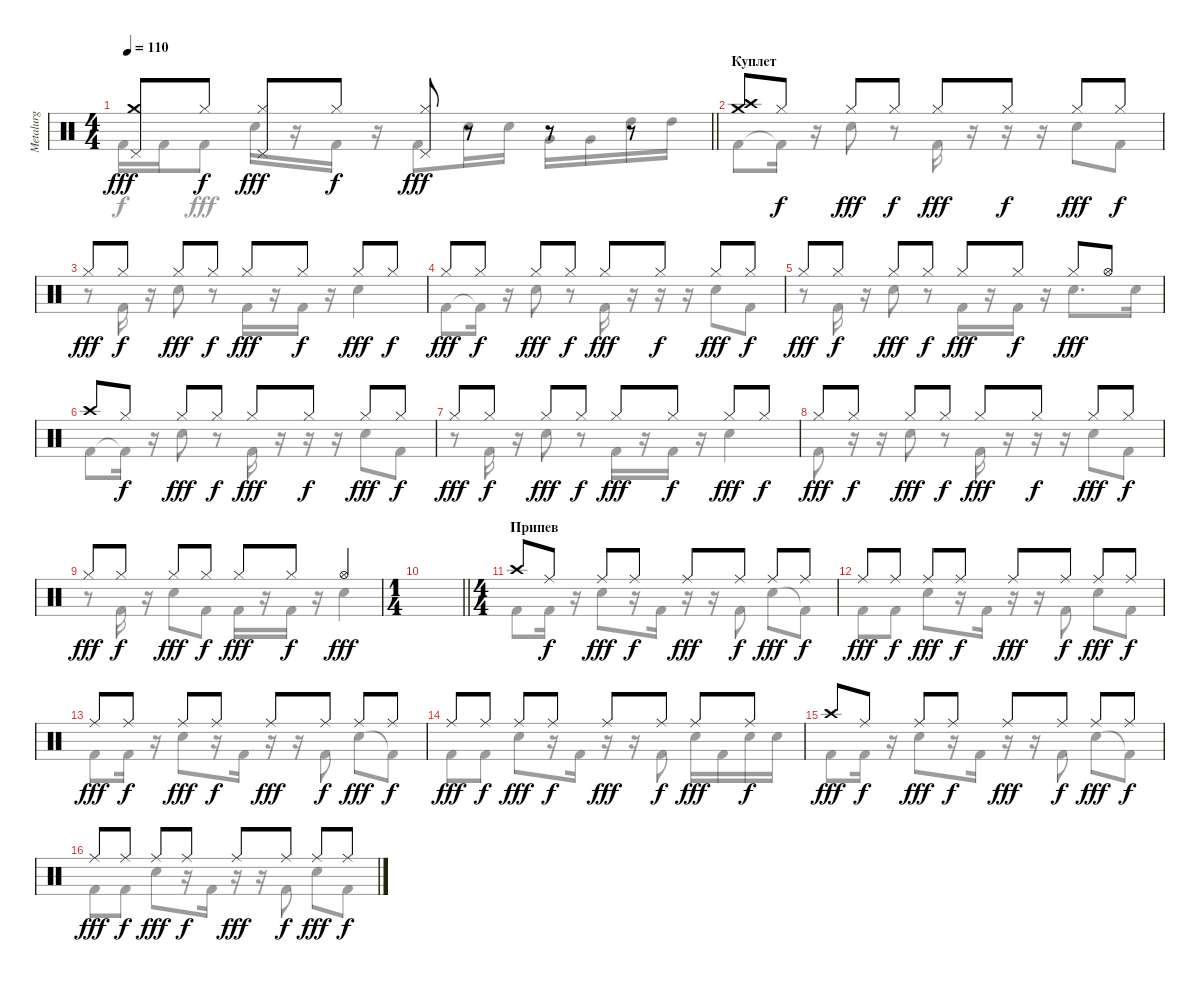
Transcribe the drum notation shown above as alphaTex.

\track ("Metalurg" "Metalurg") {instrument percussion}
\staff {score}
\articulation defaults
\voice
\ts (4 4)
\tempo 110
\clef neutral
\barLineRight lightlight
\ks c
("Crash medium (hit)" "Pedal Hi-Hat (hit)").8{dy fff} "Hi-Hat (closed)".8{dy f} ("Hi-Hat (closed)" "Pedal Hi-Hat (hit)").8{dy fff} "Hi-Hat (closed)".8{dy f} ("Hi-Hat (closed)" "Pedal Hi-Hat (hit)").8{dy fff} r.8 r.8 r.8 |
\section ("" "Куплет")
("Crash high (hit)" "Crash medium (hit)").8 "Hi-Hat (closed)".8{dy f} "Hi-Hat (closed)".8{dy fff} "Hi-Hat (closed)".8{dy f} "Hi-Hat (closed)".8{dy fff} "Hi-Hat (closed)".8{dy f} "Hi-Hat (closed)".8{dy fff} "Hi-Hat (closed)".8{dy f} |
"Hi-Hat (closed)".8{dy fff} "Hi-Hat (closed)".8{dy f} "Hi-Hat (closed)".8{dy fff} "Hi-Hat (closed)".8{dy f} "Hi-Hat (closed)".8{dy fff} "Hi-Hat (closed)".8{dy f} "Hi-Hat (closed)".8{dy fff} "Hi-Hat (closed)".8{dy f} |
"Hi-Hat (closed)".8{dy fff} "Hi-Hat (closed)".8{dy f} "Hi-Hat (closed)".8{dy fff} "Hi-Hat (closed)".8{dy f} "Hi-Hat (closed)".8{dy fff} "Hi-Hat (closed)".8{dy f} "Hi-Hat (closed)".8{dy fff} "Hi-Hat (closed)".8{dy f} |
"Hi-Hat (closed)".8{dy fff} "Hi-Hat (closed)".8{dy f} "Hi-Hat (closed)".8{dy fff} "Hi-Hat (closed)".8{dy f} "Hi-Hat (closed)".8{dy fff} "Hi-Hat (closed)".8{dy f} "Hi-Hat (closed)".8{dy fff} "Hi-Hat (open)".8 |
"Crash high (hit)".8 "Hi-Hat (closed)".8{dy f} "Hi-Hat (closed)".8{dy fff} "Hi-Hat (closed)".8{dy f} "Hi-Hat (closed)".8{dy fff} "Hi-Hat (closed)".8{dy f} "Hi-Hat (closed)".8{dy fff} "Hi-Hat (closed)".8{dy f} |
"Hi-Hat (closed)".8{dy fff} "Hi-Hat (closed)".8{dy f} "Hi-Hat (closed)".8{dy fff} "Hi-Hat (closed)".8{dy f} "Hi-Hat (closed)".8{dy fff} "Hi-Hat (closed)".8{dy f} "Hi-Hat (closed)".8{dy fff} "Hi-Hat (closed)".8{dy f} |
"Hi-Hat (closed)".8{dy fff} "Hi-Hat (closed)".8{dy f} "Hi-Hat (closed)".8{dy fff} "Hi-Hat (closed)".8{dy f} "Hi-Hat (closed)".8{dy fff} "Hi-Hat (closed)".8{dy f} "Hi-Hat (closed)".8{dy fff} "Hi-Hat (closed)".8{dy f} |
"Hi-Hat (closed)".8{dy fff} "Hi-Hat (closed)".8{dy f} "Hi-Hat (closed)".8{dy fff} "Hi-Hat (closed)".8{dy f} "Hi-Hat (closed)".8{dy fff} "Hi-Hat (closed)".8{dy f} "Hi-Hat (open)".4{dy fff} |
\ts (1 4)
\barLineRight lightlight
|
\ts (4 4)
\section ("" "Припев")
"Crash high (hit)".8 "Ride (middle)".8{dy f} "Ride (middle)".8{dy fff} "Ride (middle)".8{dy f} "Ride (middle)".8{dy fff} "Ride (middle)".8{dy f} "Ride (middle)".8{dy fff} "Ride (middle)".8{dy f} |
"Ride (middle)".8{dy fff} "Ride (middle)".8{dy f} "Ride (middle)".8{dy fff} "Ride (middle)".8{dy f} "Ride (middle)".8{dy fff} "Ride (middle)".8{dy f} "Ride (middle)".8{dy fff} "Ride (middle)".8{dy f} |
"Ride (middle)".8{dy fff} "Ride (middle)".8{dy f} "Ride (middle)".8{dy fff} "Ride (middle)".8{dy f} "Ride (middle)".8{dy fff} "Ride (middle)".8{dy f} "Ride (middle)".8{dy fff} "Ride (middle)".8{dy f} |
"Ride (middle)".8{dy fff} "Ride (middle)".8{dy f} "Ride (middle)".8{dy fff} "Ride (middle)".8{dy f} "Ride (middle)".8{dy fff} "Ride (middle)".8{dy f} "Ride (middle)".8{dy fff} "Ride (middle)".8{dy f} |
"Crash high (hit)".8{dy fff} "Ride (middle)".8{dy f} "Ride (middle)".8{dy fff} "Ride (middle)".8{dy f} "Ride (middle)".8{dy fff} "Ride (middle)".8{dy f} "Ride (middle)".8{dy fff} "Ride (middle)".8{dy f} |
"Ride (middle)".8{dy fff} "Ride (middle)".8{dy f} "Ride (middle)".8{dy fff} "Ride (middle)".8{dy f} "Ride (middle)".8{dy fff} "Ride (middle)".8{dy f} "Ride (middle)".8{dy fff} "Ride (middle)".8{dy f}
\voice
\clef neutral
\ottava regular
\simile none
\barLineRight lightlight
\ks c "Kick (hit) 2".16{dy f} "Kick (hit) 2".16 "Kick (hit) 2".8{dy fff} "Snare (hit) 2".16
r.16 "Kick (hit) 2".16 r.16 "Kick (hit) 2".8 "Snare (hit) 2".16 "Snare (hit) 2".16 "Very Low Tom (hit)".16 "Very Low Tom (hit)".16 "High Tom (hit)".16 "High Tom (hit)".16 |
"Kick (hit) 2".8 "Kick (hit) 2"{t}.16 r.16 "Snare (hit) 2".8 r.8 "Kick (hit) 2".16 r.16 r.16 r.16 "Snare (hit) 2".8 "Kick (hit) 2".8 |
r.8 "Kick (hit) 2".16 r.16 "Snare (hit) 2".8 r.8 "Kick (hit) 2".16 r.16 "Kick (hit) 2".16 r.16 "Snare (hit) 2".4 |
"Kick (hit) 2".8 "Kick (hit) 2"{t}.16 r.16 "Snare (hit) 2".8 r.8 "Kick (hit) 2".16 r.16 r.16 r.16 "Snare (hit) 2".8 "Kick (hit) 2".8 |
r.8 "Kick (hit) 2".16 r.16 "Snare (hit) 2".8 r.8 "Kick (hit) 2".16 r.16 "Kick (hit) 2".16 r.16 "Snare (hit) 2".8{d} "Snare (hit) 2".16 |
"Kick (hit) 2".8 "Kick (hit) 2"{t}.16 r.16 "Snare (hit) 2".8 r.8 "Kick (hit) 2".16 r.16 r.16 r.16 "Snare (hit) 2".8 "Kick (hit) 2".8 |
r.8 "Kick (hit) 2".16 r.16 "Snare (hit) 2".8 r.8 "Kick (hit) 2".16 r.16 "Kick (hit) 2".16 r.16 "Snare (hit) 2".4 |
"Kick (hit) 2".8 r.16 r.16 "Snare (hit) 2".8 r.8 "Kick (hit) 2".16 r.16 r.16 r.16 "Snare (hit) 2".8 "Kick (hit) 2".8 |
r.8 "Kick (hit) 2".16 r.16 "Snare (hit) 2".8 "Kick (hit) 2".8 "Kick (hit) 2".16 r.16 "Kick (hit) 2".16 r.16 "Snare (hit) 2".4 |
\barLineRight lightlight
|
"Kick (hit) 2".8 "Kick (hit) 2".16 r.16 "Snare (hit) 2".8 r.16 "Kick (hit) 2".16 r.16 r.16 "Kick (hit) 2".8 "Snare (hit) 2".8 "Kick (hit) 2"{t}.8 |
"Kick (hit) 2".8 "Kick (hit) 2".8 "Snare (hit) 2".8 r.16 "Kick (hit) 2".16 r.16 r.16 "Kick (hit) 2".8 "Snare (hit) 2".8 "Kick (hit) 2".8 |
"Kick (hit) 2".8 "Kick (hit) 2".16 r.16 "Snare (hit) 2".8 r.16 "Kick (hit) 2".16 r.16 r.16 "Kick (hit) 2".8 "Snare (hit) 2".8 "Kick (hit) 2"{t}.8 |
"Kick (hit) 2".8 "Kick (hit) 2".8 "Snare (hit) 2".8 r.16 "Kick (hit) 2".16 r.16 r.16 "Kick (hit) 2".8 "Snare (hit) 2".16 "Kick (hit) 2".16 "Snare (hit) 2".16 "Snare (hit) 2".16 |
"Kick (hit) 2".8 "Kick (hit) 2".16 r.16 "Snare (hit) 2".8 r.16 "Kick (hit) 2".16 r.16 r.16 "Kick (hit) 2".8 "Snare (hit) 2".8 "Kick (hit) 2"{t}.8 |
"Kick (hit) 2".8 "Kick (hit) 2".8 "Snare (hit) 2".8 r.16 "Kick (hit) 2".16 r.16 r.16 "Kick (hit) 2".8 "Snare (hit) 2".8 "Kick (hit) 2".8
